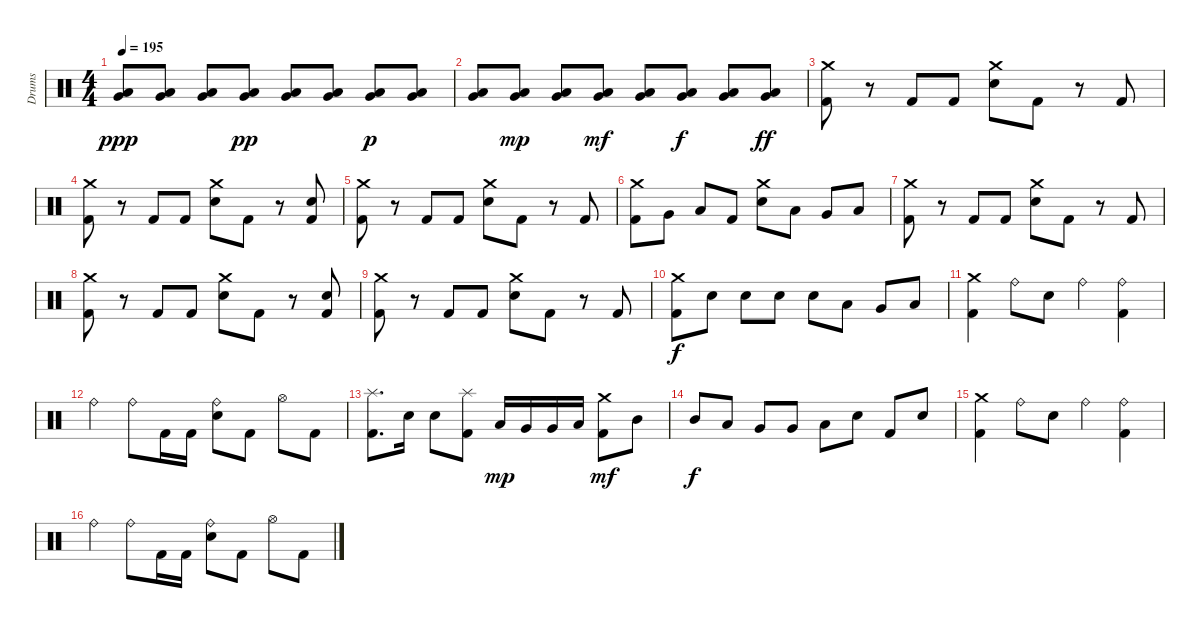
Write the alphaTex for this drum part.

\track ("Drums" "Drums") {instrument percussion}
\staff {score}
\articulation defaults
\ts (4 4)
\tempo 195
\clef neutral
\ks c
("Very Low Tom (hit)" "Low Floor Tom (hit)").8{dy ppp} ("Very Low Tom (hit)" "Low Floor Tom (hit)").8 ("Very Low Tom (hit)" "Low Floor Tom (hit)").8 ("Very Low Tom (hit)" "Low Floor Tom (hit)").8{dy pp} ("Very Low Tom (hit)" "Low Floor Tom (hit)").8 ("Very Low Tom (hit)" "Low Floor Tom (hit)").8 ("Very Low Tom (hit)" "Low Floor Tom (hit)").8{dy p} ("Very Low Tom (hit)" "Low Floor Tom (hit)").8 |
("Very Low Tom (hit)" "Low Floor Tom (hit)").8 ("Very Low Tom (hit)" "Low Floor Tom (hit)").8{dy mp} ("Very Low Tom (hit)" "Low Floor Tom (hit)").8 ("Very Low Tom (hit)" "Low Floor Tom (hit)").8{dy mf} ("Very Low Tom (hit)" "Low Floor Tom (hit)").8 ("Very Low Tom (hit)" "Low Floor Tom (hit)").8{dy f} ("Very Low Tom (hit)" "Low Floor Tom (hit)").8 ("Very Low Tom (hit)" "Low Floor Tom (hit)").8{dy ff} |
("Crash medium (hit)" "Kick (hit) 2").8 r.8 "Kick (hit) 2".8 "Kick (hit) 2".8 ("Crash medium (hit)" "Electric Snare (hit)").8 "Kick (hit) 2".8 r.8 "Kick (hit) 2".8 |
("Crash medium (hit)" "Kick (hit) 2").8 r.8 "Kick (hit) 2".8 "Kick (hit) 2".8 ("Crash medium (hit)" "Electric Snare (hit)").8 "Kick (hit) 2".8 r.8 ("Electric Snare (hit)" "Kick (hit) 2").8 |
("Crash medium (hit)" "Kick (hit) 2").8 r.8 "Kick (hit) 2".8 "Kick (hit) 2".8 ("Crash medium (hit)" "Electric Snare (hit)").8 "Kick (hit) 2".8 r.8 "Kick (hit) 2".8 |
("Crash medium (hit)" "Kick (hit) 2").8 "Very Low Tom (hit)".8 "Low Floor Tom (hit)".8 "Kick (hit) 2".8 ("Crash medium (hit)" "Electric Snare (hit)").8 "Low Tom (hit)".8 "Very Low Tom (hit)".8 "Low Floor Tom (hit)".8 |
("Crash medium (hit)" "Kick (hit) 2").8 r.8 "Kick (hit) 2".8 "Kick (hit) 2".8 ("Crash medium (hit)" "Electric Snare (hit)").8 "Kick (hit) 2".8 r.8 "Kick (hit) 2".8 |
("Crash medium (hit)" "Kick (hit) 2").8 r.8 "Kick (hit) 2".8 "Kick (hit) 2".8 ("Crash medium (hit)" "Electric Snare (hit)").8 "Kick (hit) 2".8 r.8 ("Electric Snare (hit)" "Kick (hit) 2").8 |
("Crash medium (hit)" "Kick (hit) 2").8 r.8 "Kick (hit) 2".8 "Kick (hit) 2".8 ("Crash medium (hit)" "Electric Snare (hit)").8 "Kick (hit) 2".8 r.8 "Kick (hit) 2".8 |
("Crash medium (hit)" "Kick (hit) 2").8{dy f} "Electric Snare (hit)".8 "Electric Snare (hit)".8 "Electric Snare (hit)".8 "Electric Snare (hit)".8 "Low Tom (hit)".8 "Very Low Tom (hit)".8 "Low Floor Tom (hit)".8 |
("Crash medium (hit)" "Kick (hit) 2").4 "Ride (bell)".8 "Electric Snare (hit)".8 "Ride (bell)".4 ("Ride (bell)" "Kick (hit) 2").4 |
"Ride (bell)".4 "Ride (bell)".8 "Kick (hit) 2".16 "Kick (hit) 2".16 ("Ride (bell)" "Electric Snare (hit)").8 "Kick (hit) 2".8 "Hi-Hat (open)".8 "Kick (hit) 2".8 |
("Splash (hit)" "Kick (hit) 2").8{d} "Electric Snare (hit)".16 "Electric Snare (hit)".8 ("Splash (hit)" "Kick (hit) 2").8 "Low Tom (hit)".16{dy mp} "Very Low Tom (hit)".16 "Very Low Tom (hit)".16 "Low Floor Tom (hit)".16 ("Crash medium (hit)" "Kick (hit) 2").8{dy mf} "Mid Tom (hit)".8 |
"Mid Tom (hit)".8{dy f} "Low Tom (hit)".8 "Very Low Tom (hit)".8 "Very Low Tom (hit)".8 "Low Floor Tom (hit)".8 "Electric Snare (hit)".8 "Kick (hit) 2".8 "Electric Snare (hit)".8 |
("Crash medium (hit)" "Kick (hit) 2").4 "Ride (bell)".8 "Electric Snare (hit)".8 "Ride (bell)".4 ("Ride (bell)" "Kick (hit) 2").4 |
"Ride (bell)".4 "Ride (bell)".8 "Kick (hit) 2".16 "Kick (hit) 2".16 ("Ride (bell)" "Electric Snare (hit)").8 "Kick (hit) 2".8 "Hi-Hat (open)".8 "Kick (hit) 2".8
